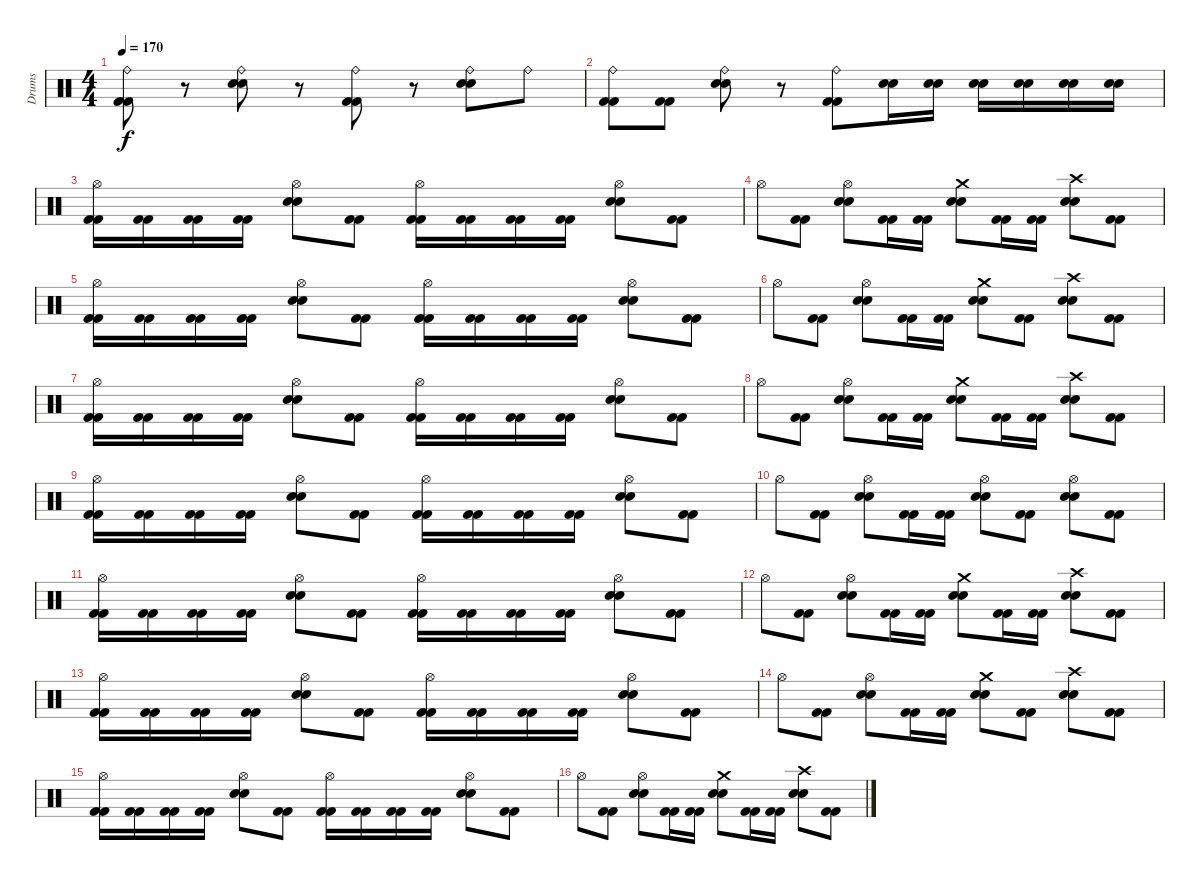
\track ("Drums" "Drums") {instrument percussion}
\staff {score}
\articulation defaults
\ts (4 4)
\tempo 170
\clef neutral
\ks c
("Ride (bell)" "Kick (hit) 2" "Kick (hit) 2").8{dy f} r.8 ("Ride (bell)" "Electric Snare (hit)" "Electric Snare (hit)").8 r.8 ("Ride (bell)" "Kick (hit) 2" "Kick (hit) 2").8 r.8 ("Ride (bell)" "Electric Snare (hit)" "Electric Snare (hit)").8 "Ride (bell)".8 |
("Ride (bell)" "Kick (hit) 2" "Kick (hit) 2").8 ("Kick (hit) 2" "Kick (hit) 2").8 ("Ride (bell)" "Electric Snare (hit)" "Electric Snare (hit)").8 r.8 ("Ride (bell)" "Kick (hit) 2" "Kick (hit) 2").8 ("Electric Snare (hit)" "Electric Snare (hit)").16 ("Electric Snare (hit)" "Electric Snare (hit)").16 ("Electric Snare (hit)" "Electric Snare (hit)").16 ("Electric Snare (hit)" "Electric Snare (hit)").16 ("Electric Snare (hit)" "Electric Snare (hit)").16 ("Electric Snare (hit)" "Electric Snare (hit)").16 |
("Hi-Hat (open)" "Kick (hit) 2" "Kick (hit) 2").16 ("Kick (hit) 2" "Kick (hit) 2").16 ("Kick (hit) 2" "Kick (hit) 2").16 ("Kick (hit) 2" "Kick (hit) 2").16 ("Hi-Hat (open)" "Electric Snare (hit)" "Electric Snare (hit)").8 ("Kick (hit) 2" "Kick (hit) 2").8 ("Hi-Hat (open)" "Kick (hit) 2" "Kick (hit) 2").16 ("Kick (hit) 2" "Kick (hit) 2").16 ("Kick (hit) 2" "Kick (hit) 2").16 ("Kick (hit) 2" "Kick (hit) 2").16 ("Hi-Hat (open)" "Electric Snare (hit)" "Electric Snare (hit)").8 ("Kick (hit) 2" "Kick (hit) 2").8 |
"Hi-Hat (open)".8 ("Kick (hit) 2" "Kick (hit) 2").8 ("Hi-Hat (open)" "Electric Snare (hit)" "Electric Snare (hit)").8 ("Kick (hit) 2" "Kick (hit) 2").16 ("Kick (hit) 2" "Kick (hit) 2").16 ("Crash medium (hit)" "Electric Snare (hit)" "Electric Snare (hit)").8 ("Kick (hit) 2" "Kick (hit) 2").16 ("Kick (hit) 2" "Kick (hit) 2").16 ("Crash high (hit)" "Electric Snare (hit)" "Electric Snare (hit)").8 ("Kick (hit) 2" "Kick (hit) 2").8 |
("Hi-Hat (open)" "Kick (hit) 2" "Kick (hit) 2").16 ("Kick (hit) 2" "Kick (hit) 2").16 ("Kick (hit) 2" "Kick (hit) 2").16 ("Kick (hit) 2" "Kick (hit) 2").16 ("Hi-Hat (open)" "Electric Snare (hit)" "Electric Snare (hit)").8 ("Kick (hit) 2" "Kick (hit) 2").8 ("Hi-Hat (open)" "Kick (hit) 2" "Kick (hit) 2").16 ("Kick (hit) 2" "Kick (hit) 2").16 ("Kick (hit) 2" "Kick (hit) 2").16 ("Kick (hit) 2" "Kick (hit) 2").16 ("Hi-Hat (open)" "Electric Snare (hit)" "Electric Snare (hit)").8 ("Kick (hit) 2" "Kick (hit) 2").8 |
"Hi-Hat (open)".8 ("Kick (hit) 2" "Kick (hit) 2").8 ("Hi-Hat (open)" "Electric Snare (hit)" "Electric Snare (hit)").8 ("Kick (hit) 2" "Kick (hit) 2").16 ("Kick (hit) 2" "Kick (hit) 2").16 ("Crash medium (hit)" "Electric Snare (hit)" "Electric Snare (hit)").8 ("Kick (hit) 2" "Kick (hit) 2").8 ("Crash high (hit)" "Electric Snare (hit)" "Electric Snare (hit)").8 ("Kick (hit) 2" "Kick (hit) 2").8 |
("Hi-Hat (open)" "Kick (hit) 2" "Kick (hit) 2").16 ("Kick (hit) 2" "Kick (hit) 2").16 ("Kick (hit) 2" "Kick (hit) 2").16 ("Kick (hit) 2" "Kick (hit) 2").16 ("Hi-Hat (open)" "Electric Snare (hit)" "Electric Snare (hit)").8 ("Kick (hit) 2" "Kick (hit) 2").8 ("Hi-Hat (open)" "Kick (hit) 2" "Kick (hit) 2").16 ("Kick (hit) 2" "Kick (hit) 2").16 ("Kick (hit) 2" "Kick (hit) 2").16 ("Kick (hit) 2" "Kick (hit) 2").16 ("Hi-Hat (open)" "Electric Snare (hit)" "Electric Snare (hit)").8 ("Kick (hit) 2" "Kick (hit) 2").8 |
"Hi-Hat (open)".8 ("Kick (hit) 2" "Kick (hit) 2").8 ("Hi-Hat (open)" "Electric Snare (hit)" "Electric Snare (hit)").8 ("Kick (hit) 2" "Kick (hit) 2").16 ("Kick (hit) 2" "Kick (hit) 2").16 ("Crash medium (hit)" "Electric Snare (hit)" "Electric Snare (hit)").8 ("Kick (hit) 2" "Kick (hit) 2").16 ("Kick (hit) 2" "Kick (hit) 2").16 ("Crash high (hit)" "Electric Snare (hit)" "Electric Snare (hit)").8 ("Kick (hit) 2" "Kick (hit) 2").8 |
("Hi-Hat (open)" "Kick (hit) 2" "Kick (hit) 2").16 ("Kick (hit) 2" "Kick (hit) 2").16 ("Kick (hit) 2" "Kick (hit) 2").16 ("Kick (hit) 2" "Kick (hit) 2").16 ("Hi-Hat (open)" "Electric Snare (hit)" "Electric Snare (hit)").8 ("Kick (hit) 2" "Kick (hit) 2").8 ("Hi-Hat (open)" "Kick (hit) 2" "Kick (hit) 2").16 ("Kick (hit) 2" "Kick (hit) 2").16 ("Kick (hit) 2" "Kick (hit) 2").16 ("Kick (hit) 2" "Kick (hit) 2").16 ("Hi-Hat (open)" "Electric Snare (hit)" "Electric Snare (hit)").8 ("Kick (hit) 2" "Kick (hit) 2").8 |
"Hi-Hat (open)".8 ("Kick (hit) 2" "Kick (hit) 2").8 ("Hi-Hat (open)" "Electric Snare (hit)" "Electric Snare (hit)").8 ("Kick (hit) 2" "Kick (hit) 2").16 ("Kick (hit) 2" "Kick (hit) 2").16 ("Hi-Hat (open)" "Electric Snare (hit)" "Electric Snare (hit)").8 ("Kick (hit) 2" "Kick (hit) 2").8 ("Hi-Hat (open)" "Electric Snare (hit)" "Electric Snare (hit)").8 ("Kick (hit) 2" "Kick (hit) 2").8 |
("Hi-Hat (open)" "Kick (hit) 2" "Kick (hit) 2").16 ("Kick (hit) 2" "Kick (hit) 2").16 ("Kick (hit) 2" "Kick (hit) 2").16 ("Kick (hit) 2" "Kick (hit) 2").16 ("Hi-Hat (open)" "Electric Snare (hit)" "Electric Snare (hit)").8 ("Kick (hit) 2" "Kick (hit) 2").8 ("Hi-Hat (open)" "Kick (hit) 2" "Kick (hit) 2").16 ("Kick (hit) 2" "Kick (hit) 2").16 ("Kick (hit) 2" "Kick (hit) 2").16 ("Kick (hit) 2" "Kick (hit) 2").16 ("Hi-Hat (open)" "Electric Snare (hit)" "Electric Snare (hit)").8 ("Kick (hit) 2" "Kick (hit) 2").8 |
"Hi-Hat (open)".8 ("Kick (hit) 2" "Kick (hit) 2").8 ("Hi-Hat (open)" "Electric Snare (hit)" "Electric Snare (hit)").8 ("Kick (hit) 2" "Kick (hit) 2").16 ("Kick (hit) 2" "Kick (hit) 2").16 ("Crash medium (hit)" "Electric Snare (hit)" "Electric Snare (hit)").8 ("Kick (hit) 2" "Kick (hit) 2").16 ("Kick (hit) 2" "Kick (hit) 2").16 ("Crash high (hit)" "Electric Snare (hit)" "Electric Snare (hit)").8 ("Kick (hit) 2" "Kick (hit) 2").8 |
("Hi-Hat (open)" "Kick (hit) 2" "Kick (hit) 2").16 ("Kick (hit) 2" "Kick (hit) 2").16 ("Kick (hit) 2" "Kick (hit) 2").16 ("Kick (hit) 2" "Kick (hit) 2").16 ("Hi-Hat (open)" "Electric Snare (hit)" "Electric Snare (hit)").8 ("Kick (hit) 2" "Kick (hit) 2").8 ("Hi-Hat (open)" "Kick (hit) 2" "Kick (hit) 2").16 ("Kick (hit) 2" "Kick (hit) 2").16 ("Kick (hit) 2" "Kick (hit) 2").16 ("Kick (hit) 2" "Kick (hit) 2").16 ("Hi-Hat (open)" "Electric Snare (hit)" "Electric Snare (hit)").8 ("Kick (hit) 2" "Kick (hit) 2").8 |
"Hi-Hat (open)".8 ("Kick (hit) 2" "Kick (hit) 2").8 ("Hi-Hat (open)" "Electric Snare (hit)" "Electric Snare (hit)").8 ("Kick (hit) 2" "Kick (hit) 2").16 ("Kick (hit) 2" "Kick (hit) 2").16 ("Crash medium (hit)" "Electric Snare (hit)" "Electric Snare (hit)").8 ("Kick (hit) 2" "Kick (hit) 2").8 ("Crash high (hit)" "Electric Snare (hit)" "Electric Snare (hit)").8 ("Kick (hit) 2" "Kick (hit) 2").8 |
("Hi-Hat (open)" "Kick (hit) 2" "Kick (hit) 2").16 ("Kick (hit) 2" "Kick (hit) 2").16 ("Kick (hit) 2" "Kick (hit) 2").16 ("Kick (hit) 2" "Kick (hit) 2").16 ("Hi-Hat (open)" "Electric Snare (hit)" "Electric Snare (hit)").8 ("Kick (hit) 2" "Kick (hit) 2").8 ("Hi-Hat (open)" "Kick (hit) 2" "Kick (hit) 2").16 ("Kick (hit) 2" "Kick (hit) 2").16 ("Kick (hit) 2" "Kick (hit) 2").16 ("Kick (hit) 2" "Kick (hit) 2").16 ("Hi-Hat (open)" "Electric Snare (hit)" "Electric Snare (hit)").8 ("Kick (hit) 2" "Kick (hit) 2").8 |
"Hi-Hat (open)".8 ("Kick (hit) 2" "Kick (hit) 2").8 ("Hi-Hat (open)" "Electric Snare (hit)" "Electric Snare (hit)").8 ("Kick (hit) 2" "Kick (hit) 2").16 ("Kick (hit) 2" "Kick (hit) 2").16 ("Crash medium (hit)" "Electric Snare (hit)" "Electric Snare (hit)").8 ("Kick (hit) 2" "Kick (hit) 2").16 ("Kick (hit) 2" "Kick (hit) 2").16 ("Crash high (hit)" "Electric Snare (hit)" "Electric Snare (hit)").8 ("Kick (hit) 2" "Kick (hit) 2").8
